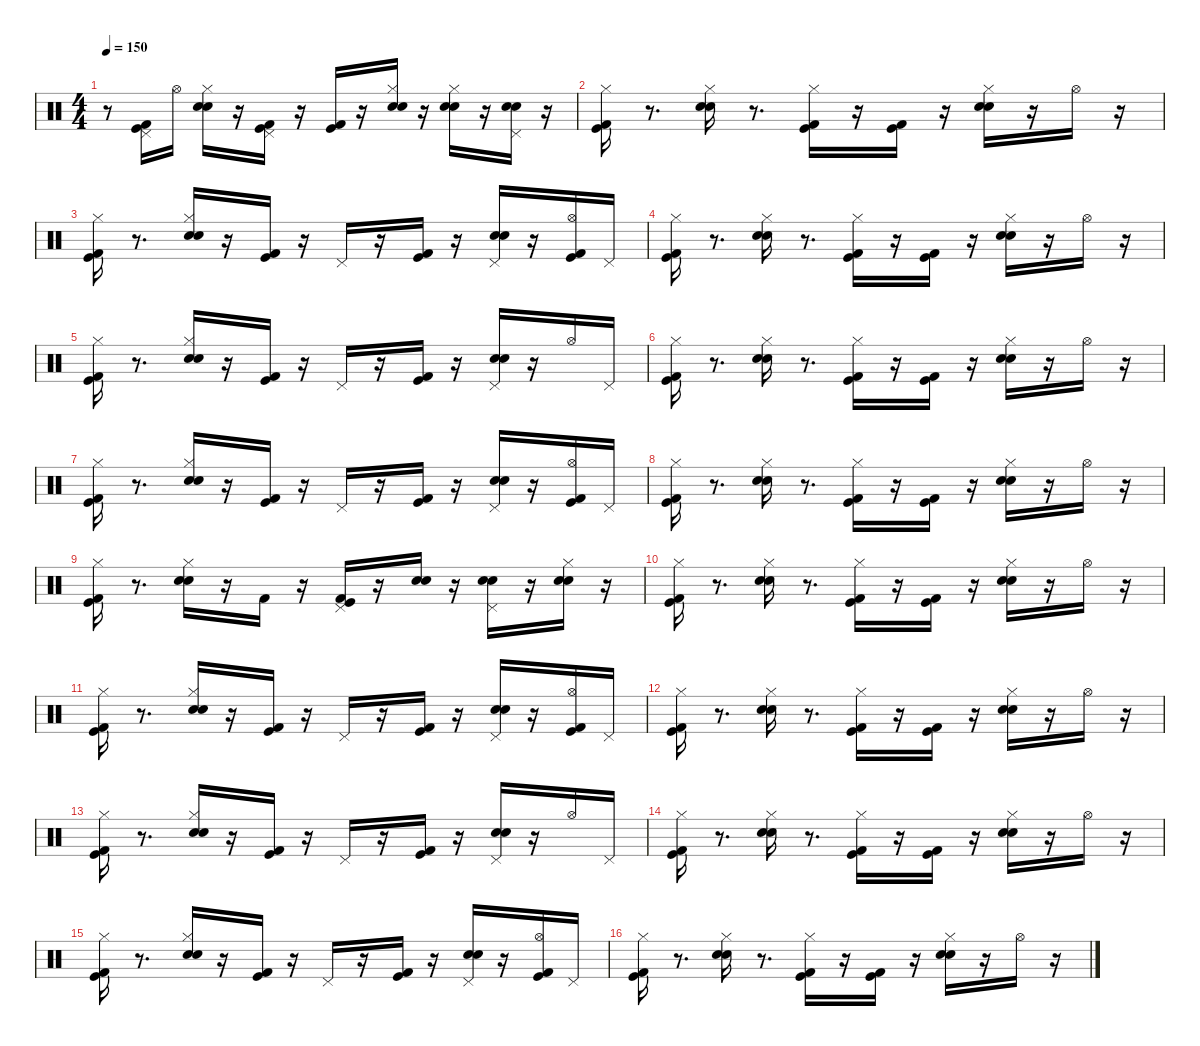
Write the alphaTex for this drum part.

\defaultSystemsLayout 4
\hideDynamics
\bracketExtendMode nobrackets
\singleTrackTrackNamePolicy hidden
\multiTrackTrackNamePolicy hidden
\firstSystemTrackNameMode fullname
\firstSystemTrackNameOrientation horizontal
\otherSystemsTrackNameOrientation horizontal
\track ("Track 8" "drm.") {instrument percussion}
\staff {score}
\articulation defaults
\ts (4 4)
\beaming (8 2 2 2 2)
\tempo 150
\clef neutral
\ks c
r.8{dy fff beam Down} ("Pedal Hi-Hat (hit)" "Kick (hit) 2" "Kick (hit)").16{beam Down} "Hi-Hat (open)".16{beam Down} ("Snare (hit) 2" "Hi-Hat (closed)" "Snare (hit) 2").16{beam Down} r.16{beam Down} ("Pedal Hi-Hat (hit)" "Kick (hit)" "Kick (hit) 2").16{beam Down} r.16{beam Down} ("Kick (hit)" "Kick (hit) 2").16{beam Up} r.16{beam Up} ("Snare (hit) 2" "Hi-Hat (closed)" "Snare (hit) 2").16{beam Up} r.16{beam Up} ("Snare (hit) 2" "Hi-Hat (closed)" "Snare (hit) 2").16{beam Down} r.16{beam Down} ("Snare (hit) 2" "Pedal Hi-Hat (hit)" "Snare (hit) 2").16{beam Down} r.16{beam Down} |
("Hi-Hat (closed)" "Kick (hit)" "Kick (hit) 2").16{beam Down} r.8{d beam Down} ("Hi-Hat (closed)" "Snare (hit) 2" "Snare (hit) 2").16{beam Down} r.8{d beam Down} ("Hi-Hat (closed)" "Kick (hit)" "Kick (hit) 2").16{beam Down} r.16{beam Down} ("Kick (hit)" "Kick (hit) 2").16{beam Down} r.16{beam Down} ("Hi-Hat (closed)" "Snare (hit) 2" "Snare (hit) 2").16{beam Down} r.16{beam Down} "Hi-Hat (open)".16{beam Down} r.16{beam Down} |
("Hi-Hat (closed)" "Kick (hit)" "Kick (hit) 2").16{beam Down} r.8{d beam Down} ("Hi-Hat (closed)" "Snare (hit) 2" "Snare (hit) 2").16{beam Up} r.16{beam Up} ("Kick (hit)" "Kick (hit) 2").16{beam Up} r.16{beam Up} "Pedal Hi-Hat (hit)".16{beam Up} r.16{beam Up} ("Kick (hit)" "Kick (hit) 2").16{beam Up} r.16{beam Up} ("Pedal Hi-Hat (hit)" "Snare (hit) 2" "Snare (hit) 2").16{beam Up} r.16{beam Up} ("Hi-Hat (open)" "Kick (hit)" "Kick (hit) 2").16{beam Up} "Pedal Hi-Hat (hit)".16{beam Up} |
("Hi-Hat (closed)" "Kick (hit) 2" "Kick (hit)").16{beam Down} r.8{d beam Down} ("Hi-Hat (closed)" "Snare (hit) 2" "Snare (hit) 2").16{beam Down} r.8{d beam Down} ("Hi-Hat (closed)" "Kick (hit) 2" "Kick (hit)").16{beam Down} r.16{beam Down} ("Kick (hit) 2" "Kick (hit)").16{beam Down} r.16{beam Down} ("Hi-Hat (closed)" "Snare (hit) 2" "Snare (hit) 2").16{beam Down} r.16{beam Down} "Hi-Hat (open)".16{beam Down} r.16{beam Down} |
("Hi-Hat (closed)" "Kick (hit) 2" "Kick (hit)").16{beam Down} r.8{d beam Down} ("Hi-Hat (closed)" "Snare (hit) 2" "Snare (hit) 2").16{beam Up} r.16{beam Up} ("Kick (hit) 2" "Kick (hit)").16{beam Up} r.16{beam Up} "Pedal Hi-Hat (hit)".16{beam Up} r.16{beam Up} ("Kick (hit) 2" "Kick (hit)").16{beam Up} r.16{beam Up} ("Pedal Hi-Hat (hit)" "Snare (hit) 2" "Snare (hit) 2").16{beam Up} r.16{beam Up} "Hi-Hat (open)".16{beam Up} "Pedal Hi-Hat (hit)".16{beam Up} |
("Kick (hit) 2" "Kick (hit)" "Hi-Hat (closed)").16{beam Down} r.8{d beam Down} ("Snare (hit) 2" "Snare (hit) 2" "Hi-Hat (closed)").16{beam Down} r.8{d beam Down} ("Kick (hit) 2" "Kick (hit)" "Hi-Hat (closed)").16{beam Down} r.16{beam Down} ("Kick (hit) 2" "Kick (hit)").16{beam Down} r.16{beam Down} ("Snare (hit) 2" "Snare (hit) 2" "Hi-Hat (closed)").16{beam Down} r.16{beam Down} "Hi-Hat (open)".16{beam Down} r.16{beam Down} |
("Kick (hit) 2" "Kick (hit)" "Hi-Hat (closed)").16{beam Down} r.8{d beam Down} ("Snare (hit) 2" "Snare (hit) 2" "Hi-Hat (closed)").16{beam Up} r.16{beam Up} ("Kick (hit) 2" "Kick (hit)").16{beam Up} r.16{beam Up} "Pedal Hi-Hat (hit)".16{beam Up} r.16{beam Up} ("Kick (hit) 2" "Kick (hit)").16{beam Up} r.16{beam Up} ("Snare (hit) 2" "Snare (hit) 2" "Pedal Hi-Hat (hit)").16{beam Up} r.16{beam Up} ("Kick (hit) 2" "Kick (hit)" "Hi-Hat (open)").16{beam Up} "Pedal Hi-Hat (hit)".16{beam Up} |
("Kick (hit)" "Kick (hit) 2" "Hi-Hat (closed)").16{beam Down} r.8{d beam Down} ("Snare (hit) 2" "Snare (hit) 2" "Hi-Hat (closed)").16{beam Down} r.8{d beam Down} ("Kick (hit)" "Kick (hit) 2" "Hi-Hat (closed)").16{beam Down} r.16{beam Down} ("Kick (hit)" "Kick (hit) 2").16{beam Down} r.16{beam Down} ("Snare (hit) 2" "Snare (hit) 2" "Hi-Hat (closed)").16{beam Down} r.16{beam Down} "Hi-Hat (open)".16{beam Down} r.16{beam Down} |
("Kick (hit)" "Kick (hit) 2" "Hi-Hat (closed)").16{beam Down} r.8{d beam Down} ("Snare (hit) 2" "Snare (hit) 2" "Hi-Hat (closed)").16{beam Down} r.16{beam Down} "Kick (hit) 2".16{beam Down} r.16{beam Down} ("Kick (hit)" "Kick (hit) 2" "Pedal Hi-Hat (hit)").16{dy f beam Up} r.16{beam Up} ("Snare (hit) 2" "Snare (hit) 2").16{beam Up} r.16{beam Up} ("Snare (hit) 2" "Snare (hit) 2" "Pedal Hi-Hat (hit)").16{dy fff beam Down} r.16{beam Down} ("Hi-Hat (closed)" "Snare (hit) 2" "Snare (hit) 2").16{beam Down} r.16{beam Down} |
("Kick (hit) 2" "Hi-Hat (closed)" "Kick (hit)").16{beam Down} r.8{d beam Down} ("Snare (hit) 2" "Snare (hit) 2" "Hi-Hat (closed)").16{beam Down} r.8{d beam Down} ("Kick (hit) 2" "Kick (hit)" "Hi-Hat (closed)").16{beam Down} r.16{beam Down} ("Kick (hit) 2" "Kick (hit)").16{beam Down} r.16{beam Down} ("Snare (hit) 2" "Snare (hit) 2" "Hi-Hat (closed)").16{beam Down} r.16{beam Down} "Hi-Hat (open)".16{beam Down} r.16{beam Down} |
("Kick (hit) 2" "Kick (hit)" "Hi-Hat (closed)").16{beam Down} r.8{d beam Down} ("Snare (hit) 2" "Snare (hit) 2" "Hi-Hat (closed)").16{beam Up} r.16{beam Up} ("Kick (hit) 2" "Kick (hit)").16{beam Up} r.16{beam Up} "Pedal Hi-Hat (hit)".16{beam Up} r.16{beam Up} ("Kick (hit) 2" "Kick (hit)").16{beam Up} r.16{beam Up} ("Snare (hit) 2" "Snare (hit) 2" "Pedal Hi-Hat (hit)").16{beam Up} r.16{beam Up} ("Kick (hit) 2" "Kick (hit)" "Hi-Hat (open)").16{beam Up} "Pedal Hi-Hat (hit)".16{beam Up} |
("Kick (hit)" "Kick (hit) 2" "Hi-Hat (closed)").16{beam Down} r.8{d beam Down} ("Snare (hit) 2" "Snare (hit) 2" "Hi-Hat (closed)").16{beam Down} r.8{d beam Down} ("Kick (hit)" "Kick (hit) 2" "Hi-Hat (closed)").16{beam Down} r.16{beam Down} ("Kick (hit)" "Kick (hit) 2").16{beam Down} r.16{beam Down} ("Snare (hit) 2" "Snare (hit) 2" "Hi-Hat (closed)").16{beam Down} r.16{beam Down} "Hi-Hat (open)".16{beam Down} r.16{beam Down} |
("Kick (hit)" "Kick (hit) 2" "Hi-Hat (closed)").16{beam Down} r.8{d beam Down} ("Snare (hit) 2" "Snare (hit) 2" "Hi-Hat (closed)").16{beam Up} r.16{beam Up} ("Kick (hit)" "Kick (hit) 2").16{beam Up} r.16{beam Up} "Pedal Hi-Hat (hit)".16{beam Up} r.16{beam Up} ("Kick (hit)" "Kick (hit) 2").16{beam Up} r.16{beam Up} ("Snare (hit) 2" "Snare (hit) 2" "Pedal Hi-Hat (hit)").16{beam Up} r.16{beam Up} "Hi-Hat (open)".16{beam Up} "Pedal Hi-Hat (hit)".16{beam Up} |
("Hi-Hat (closed)" "Kick (hit)" "Kick (hit) 2").16{beam Down} r.8{d beam Down} ("Hi-Hat (closed)" "Snare (hit) 2" "Snare (hit) 2").16{beam Down} r.8{d beam Down} ("Hi-Hat (closed)" "Kick (hit)" "Kick (hit) 2").16{beam Down} r.16{beam Down} ("Kick (hit)" "Kick (hit) 2").16{beam Down} r.16{beam Down} ("Hi-Hat (closed)" "Snare (hit) 2" "Snare (hit) 2").16{beam Down} r.16{beam Down} "Hi-Hat (open)".16{beam Down} r.16{beam Down} |
("Hi-Hat (closed)" "Kick (hit)" "Kick (hit) 2").16{beam Down} r.8{d beam Down} ("Hi-Hat (closed)" "Snare (hit) 2" "Snare (hit) 2").16{beam Up} r.16{beam Up} ("Kick (hit)" "Kick (hit) 2").16{beam Up} r.16{beam Up} "Pedal Hi-Hat (hit)".16{beam Up} r.16{beam Up} ("Kick (hit)" "Kick (hit) 2").16{beam Up} r.16{beam Up} ("Pedal Hi-Hat (hit)" "Snare (hit) 2" "Snare (hit) 2").16{beam Up} r.16{beam Up} ("Hi-Hat (open)" "Kick (hit)" "Kick (hit) 2").16{beam Up} "Pedal Hi-Hat (hit)".16{beam Up} |
("Hi-Hat (closed)" "Kick (hit) 2" "Kick (hit)").16{beam Down} r.8{d beam Down} ("Hi-Hat (closed)" "Snare (hit) 2" "Snare (hit) 2").16{beam Down} r.8{d beam Down} ("Hi-Hat (closed)" "Kick (hit) 2" "Kick (hit)").16{beam Down} r.16{beam Down} ("Kick (hit) 2" "Kick (hit)").16{beam Down} r.16{beam Down} ("Hi-Hat (closed)" "Snare (hit) 2" "Snare (hit) 2").16{beam Down} r.16{beam Down} "Hi-Hat (open)".16{beam Down} r.16{beam Down}
